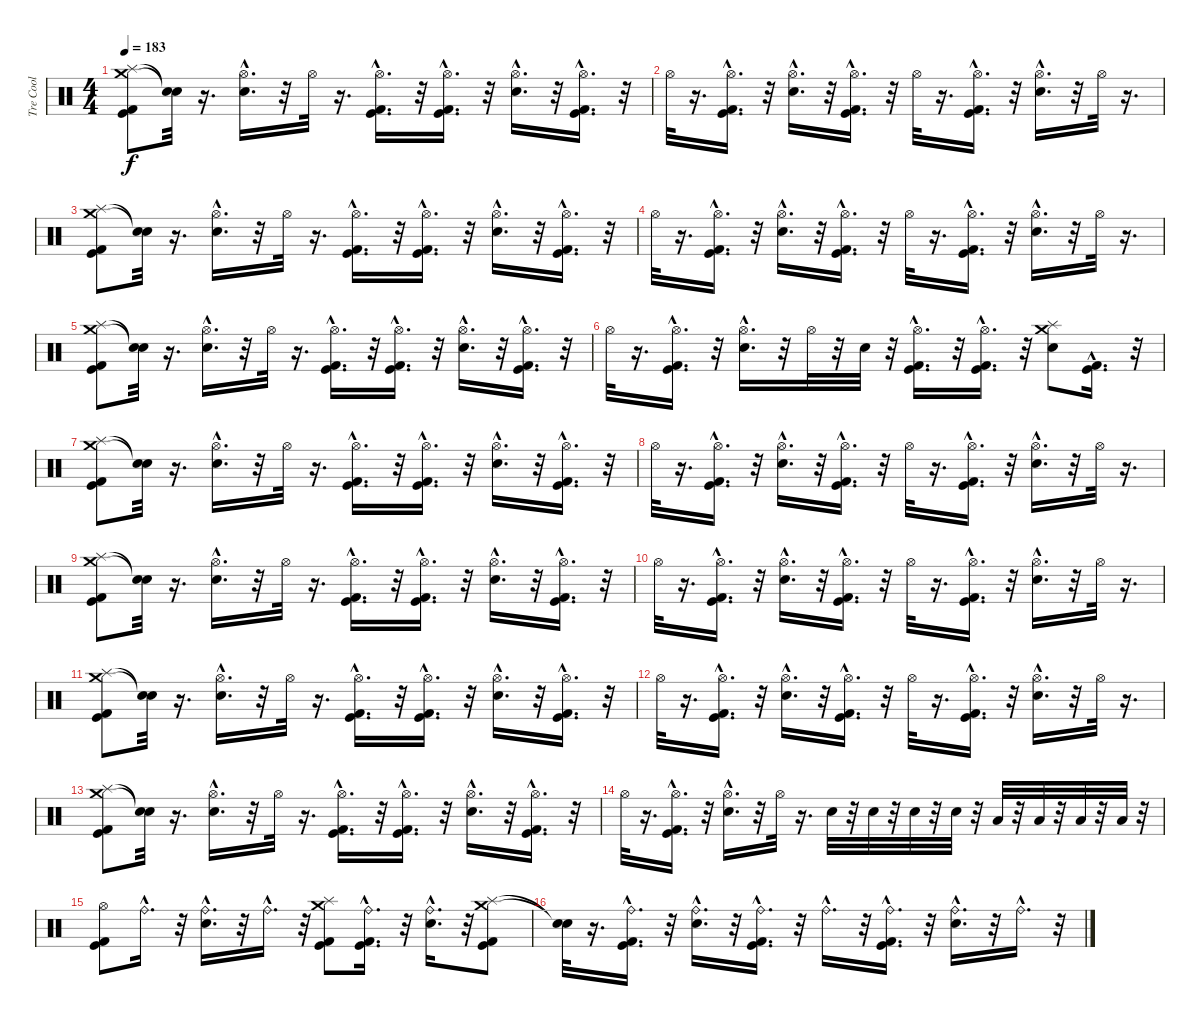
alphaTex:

\track ("Tre Cool" "Tre Cool") {instrument percussion}
\staff {score}
\articulation defaults
\ts (4 4)
\tempo 183
\clef neutral
\ks c
("Splash (hit)" "Crash medium (hit)" "Kick (hit)" "Kick (hit) 2").8{dy f} ("Snare (hit)"{t} "Snare (hit)"{t}).32 r.16{d} ("Electric Snare (hit)"{hac} "Hi-Hat (open)"{hac}).16{d} r.32 "Hi-Hat (open)".32 r.16{d} ("Kick (hit)"{hac} "Kick (hit) 2"{hac} "Hi-Hat (open)"{hac}).16{d} r.32 ("Kick (hit)"{hac} "Kick (hit) 2"{hac} "Hi-Hat (open)"{hac}).16{d} r.32 ("Electric Snare (hit)"{hac} "Hi-Hat (open)"{hac}).16{d} r.32 ("Kick (hit)"{hac} "Kick (hit) 2"{hac} "Hi-Hat (open)"{hac}).16{d} r.32 |
"Hi-Hat (open)".32 r.16{d} ("Kick (hit)"{hac} "Kick (hit) 2"{hac} "Hi-Hat (open)"{hac}).16{d} r.32 ("Electric Snare (hit)"{hac} "Hi-Hat (open)"{hac}).16{d} r.32 ("Kick (hit)"{hac} "Kick (hit) 2"{hac} "Hi-Hat (open)"{hac}).16{d} r.32 "Hi-Hat (open)".32 r.16{d} ("Kick (hit)"{hac} "Kick (hit) 2"{hac} "Hi-Hat (open)"{hac}).16{d} r.32 ("Electric Snare (hit)"{hac} "Hi-Hat (open)"{hac}).16{d} r.32 "Hi-Hat (open)".32 r.16{d} |
("Splash (hit)" "Crash medium (hit)" "Kick (hit)" "Kick (hit) 2").8 ("Snare (hit)"{t} "Snare (hit)"{t}).32 r.16{d} ("Electric Snare (hit)"{hac} "Hi-Hat (open)"{hac}).16{d} r.32 "Hi-Hat (open)".32 r.16{d} ("Kick (hit)"{hac} "Kick (hit) 2"{hac} "Hi-Hat (open)"{hac}).16{d} r.32 ("Kick (hit)"{hac} "Kick (hit) 2"{hac} "Hi-Hat (open)"{hac}).16{d} r.32 ("Electric Snare (hit)"{hac} "Hi-Hat (open)"{hac}).16{d} r.32 ("Kick (hit)"{hac} "Kick (hit) 2"{hac} "Hi-Hat (open)"{hac}).16{d} r.32 |
"Hi-Hat (open)".32 r.16{d} ("Kick (hit)"{hac} "Kick (hit) 2"{hac} "Hi-Hat (open)"{hac}).16{d} r.32 ("Electric Snare (hit)"{hac} "Hi-Hat (open)"{hac}).16{d} r.32 ("Kick (hit)"{hac} "Kick (hit) 2"{hac} "Hi-Hat (open)"{hac}).16{d} r.32 "Hi-Hat (open)".32 r.16{d} ("Kick (hit)"{hac} "Kick (hit) 2"{hac} "Hi-Hat (open)"{hac}).16{d} r.32 ("Electric Snare (hit)"{hac} "Hi-Hat (open)"{hac}).16{d} r.32 "Hi-Hat (open)".32 r.16{d} |
("Splash (hit)" "Crash medium (hit)" "Kick (hit)" "Kick (hit) 2").8 ("Snare (hit)"{t} "Snare (hit)"{t}).32 r.16{d} ("Electric Snare (hit)"{hac} "Hi-Hat (open)"{hac}).16{d} r.32 "Hi-Hat (open)".32 r.16{d} ("Kick (hit)"{hac} "Kick (hit) 2"{hac} "Hi-Hat (open)"{hac}).16{d} r.32 ("Kick (hit)"{hac} "Kick (hit) 2"{hac} "Hi-Hat (open)"{hac}).16{d} r.32 ("Electric Snare (hit)"{hac} "Hi-Hat (open)"{hac}).16{d} r.32 ("Kick (hit)"{hac} "Kick (hit) 2"{hac} "Hi-Hat (open)"{hac}).16{d} r.32 |
"Hi-Hat (open)".32 r.16{d} ("Kick (hit)"{hac} "Kick (hit) 2"{hac} "Hi-Hat (open)"{hac}).16{d} r.32 ("Electric Snare (hit)"{hac} "Hi-Hat (open)"{hac}).16{d} r.32 "Hi-Hat (open)".32 r.32 "Electric Snare (hit)".32 r.32 ("Kick (hit)"{hac} "Kick (hit) 2"{hac} "Hi-Hat (open)"{hac}).16{d} r.32 ("Kick (hit)"{hac} "Kick (hit) 2"{hac} "Hi-Hat (open)"{hac}).16{d} r.32 ("Electric Snare (hit)" "Splash (hit)" "Crash medium (hit)").8 ("Kick (hit)"{hac} "Kick (hit) 2"{hac}).16{d} r.32 |
("Splash (hit)" "Crash medium (hit)" "Kick (hit)" "Kick (hit) 2").8 ("Snare (hit)"{t} "Snare (hit)"{t}).32 r.16{d} ("Electric Snare (hit)"{hac} "Hi-Hat (open)"{hac}).16{d} r.32 "Hi-Hat (open)".32 r.16{d} ("Kick (hit)"{hac} "Kick (hit) 2"{hac} "Hi-Hat (open)"{hac}).16{d} r.32 ("Kick (hit)"{hac} "Kick (hit) 2"{hac} "Hi-Hat (open)"{hac}).16{d} r.32 ("Electric Snare (hit)"{hac} "Hi-Hat (open)"{hac}).16{d} r.32 ("Kick (hit)"{hac} "Kick (hit) 2"{hac} "Hi-Hat (open)"{hac}).16{d} r.32 |
"Hi-Hat (open)".32 r.16{d} ("Kick (hit)"{hac} "Kick (hit) 2"{hac} "Hi-Hat (open)"{hac}).16{d} r.32 ("Electric Snare (hit)"{hac} "Hi-Hat (open)"{hac}).16{d} r.32 ("Kick (hit)"{hac} "Kick (hit) 2"{hac} "Hi-Hat (open)"{hac}).16{d} r.32 "Hi-Hat (open)".32 r.16{d} ("Kick (hit)"{hac} "Kick (hit) 2"{hac} "Hi-Hat (open)"{hac}).16{d} r.32 ("Electric Snare (hit)"{hac} "Hi-Hat (open)"{hac}).16{d} r.32 "Hi-Hat (open)".32 r.16{d} |
("Splash (hit)" "Crash medium (hit)" "Kick (hit)" "Kick (hit) 2").8 ("Snare (hit)"{t} "Snare (hit)"{t}).32 r.16{d} ("Electric Snare (hit)"{hac} "Hi-Hat (open)"{hac}).16{d} r.32 "Hi-Hat (open)".32 r.16{d} ("Kick (hit)"{hac} "Kick (hit) 2"{hac} "Hi-Hat (open)"{hac}).16{d} r.32 ("Kick (hit)"{hac} "Kick (hit) 2"{hac} "Hi-Hat (open)"{hac}).16{d} r.32 ("Electric Snare (hit)"{hac} "Hi-Hat (open)"{hac}).16{d} r.32 ("Kick (hit)"{hac} "Kick (hit) 2"{hac} "Hi-Hat (open)"{hac}).16{d} r.32 |
"Hi-Hat (open)".32 r.16{d} ("Kick (hit)"{hac} "Kick (hit) 2"{hac} "Hi-Hat (open)"{hac}).16{d} r.32 ("Electric Snare (hit)"{hac} "Hi-Hat (open)"{hac}).16{d} r.32 ("Kick (hit)"{hac} "Kick (hit) 2"{hac} "Hi-Hat (open)"{hac}).16{d} r.32 "Hi-Hat (open)".32 r.16{d} ("Kick (hit)"{hac} "Kick (hit) 2"{hac} "Hi-Hat (open)"{hac}).16{d} r.32 ("Electric Snare (hit)"{hac} "Hi-Hat (open)"{hac}).16{d} r.32 "Hi-Hat (open)".32 r.16{d} |
("Splash (hit)" "Crash medium (hit)" "Kick (hit)" "Kick (hit) 2").8 ("Snare (hit)"{t} "Snare (hit)"{t}).32 r.16{d} ("Electric Snare (hit)"{hac} "Hi-Hat (open)"{hac}).16{d} r.32 "Hi-Hat (open)".32 r.16{d} ("Kick (hit)"{hac} "Kick (hit) 2"{hac} "Hi-Hat (open)"{hac}).16{d} r.32 ("Kick (hit)"{hac} "Kick (hit) 2"{hac} "Hi-Hat (open)"{hac}).16{d} r.32 ("Electric Snare (hit)"{hac} "Hi-Hat (open)"{hac}).16{d} r.32 ("Kick (hit)"{hac} "Kick (hit) 2"{hac} "Hi-Hat (open)"{hac}).16{d} r.32 |
"Hi-Hat (open)".32 r.16{d} ("Kick (hit)"{hac} "Kick (hit) 2"{hac} "Hi-Hat (open)"{hac}).16{d} r.32 ("Electric Snare (hit)"{hac} "Hi-Hat (open)"{hac}).16{d} r.32 ("Kick (hit)"{hac} "Kick (hit) 2"{hac} "Hi-Hat (open)"{hac}).16{d} r.32 "Hi-Hat (open)".32 r.16{d} ("Kick (hit)"{hac} "Kick (hit) 2"{hac} "Hi-Hat (open)"{hac}).16{d} r.32 ("Electric Snare (hit)"{hac} "Hi-Hat (open)"{hac}).16{d} r.32 "Hi-Hat (open)".32 r.16{d} |
("Splash (hit)" "Crash medium (hit)" "Kick (hit)" "Kick (hit) 2").8 ("Snare (hit)"{t} "Snare (hit)"{t}).32 r.16{d} ("Electric Snare (hit)"{hac} "Hi-Hat (open)"{hac}).16{d} r.32 "Hi-Hat (open)".32 r.16{d} ("Kick (hit)"{hac} "Kick (hit) 2"{hac} "Hi-Hat (open)"{hac}).16{d} r.32 ("Kick (hit)"{hac} "Kick (hit) 2"{hac} "Hi-Hat (open)"{hac}).16{d} r.32 ("Electric Snare (hit)"{hac} "Hi-Hat (open)"{hac}).16{d} r.32 ("Kick (hit)"{hac} "Kick (hit) 2"{hac} "Hi-Hat (open)"{hac}).16{d} r.32 |
"Hi-Hat (open)".32 r.16{d} ("Kick (hit)"{hac} "Kick (hit) 2"{hac} "Hi-Hat (open)"{hac}).16{d} r.32 ("Electric Snare (hit)"{hac} "Hi-Hat (open)"{hac}).16{d} r.32 "Hi-Hat (open)".32 r.16{d} "Electric Snare (hit)".32 r.32 "Electric Snare (hit)".32 r.32 "Electric Snare (hit)".32 r.32 "Electric Snare (hit)".32 r.32 "Low Tom (hit)".32 r.32 "Low Tom (hit)".32 r.32 "Low Tom (hit)".32 r.32 "Low Tom (hit)".32 r.32 |
("Kick (hit)" "Kick (hit) 2" "Hi-Hat (open)").8 "Ride (bell)"{hac}.16{d} r.32 ("Electric Snare (hit)"{hac} "Ride (bell)"{hac}).16{d} r.32 "Ride (bell)"{hac}.16{d} r.32 ("Splash (hit)" "Crash medium (hit)" "Kick (hit)" "Kick (hit) 2").8 ("Kick (hit)"{hac} "Kick (hit) 2"{hac} "Ride (bell)"{hac}).16{d} r.32 ("Electric Snare (hit)"{hac} "Ride (bell)"{hac}).16{d} r.32 ("Splash (hit)" "Crash medium (hit)" "Kick (hit)" "Kick (hit) 2").8 |
("Snare (hit)"{t} "Snare (hit)"{t}).32 r.16{d} ("Kick (hit)"{hac} "Kick (hit) 2"{hac} "Ride (bell)"{hac}).16{d} r.32 ("Electric Snare (hit)"{hac} "Ride (bell)"{hac}).16{d} r.32 ("Kick (hit)"{hac} "Kick (hit) 2"{hac} "Ride (bell)"{hac}).16{d} r.32 "Ride (bell)"{hac}.16{d} r.32 ("Kick (hit)"{hac} "Kick (hit) 2"{hac} "Ride (bell)"{hac}).16{d} r.32 ("Electric Snare (hit)"{hac} "Ride (bell)"{hac}).16{d} r.32 "Ride (bell)"{hac}.16{d} r.32
